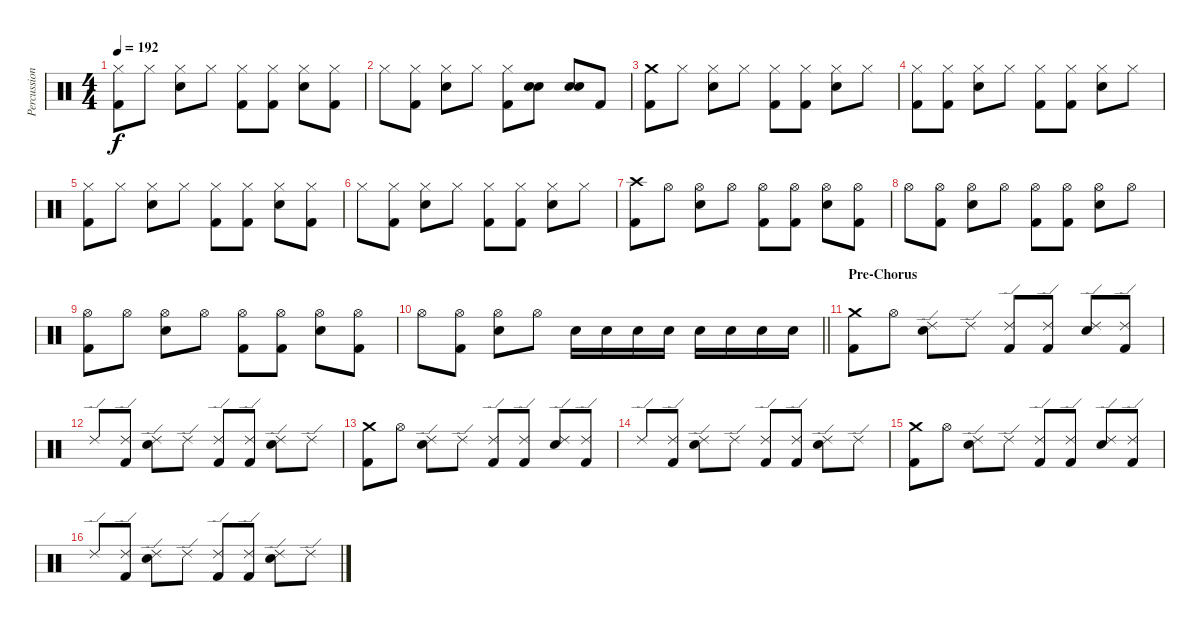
\track ("Percussion" "Percussion") {instrument percussion}
\staff {score}
\articulation defaults
\ts (4 4)
\tempo 192
\clef neutral
\ks c
("Hi-Hat (closed)" "Kick (hit) 2").8{dy f} "Hi-Hat (closed)".8 ("Hi-Hat (closed)" "Electric Snare (hit)").8 "Hi-Hat (closed)".8 ("Hi-Hat (closed)" "Kick (hit) 2").8 ("Hi-Hat (closed)" "Kick (hit) 2").8 ("Hi-Hat (closed)" "Electric Snare (hit)").8 ("Hi-Hat (closed)" "Kick (hit) 2").8 |
"Hi-Hat (closed)".8 ("Hi-Hat (closed)" "Kick (hit) 2").8 ("Hi-Hat (closed)" "Electric Snare (hit)").8 "Hi-Hat (closed)".8 ("Hi-Hat (closed)" "Kick (hit) 2").8 ("Electric Snare (hit)" "Electric Snare (hit)").8 ("Electric Snare (hit)" "Electric Snare (hit)").8 "Kick (hit) 2".8 |
("Crash medium (hit)" "Kick (hit) 2").8 "Hi-Hat (closed)".8 ("Hi-Hat (closed)" "Electric Snare (hit)").8 "Hi-Hat (closed)".8 ("Hi-Hat (closed)" "Kick (hit) 2").8 ("Hi-Hat (closed)" "Kick (hit) 2").8 ("Hi-Hat (closed)" "Electric Snare (hit)").8 "Hi-Hat (closed)".8 |
("Hi-Hat (closed)" "Kick (hit) 2").8 ("Hi-Hat (closed)" "Kick (hit) 2").8 ("Hi-Hat (closed)" "Electric Snare (hit)").8 "Hi-Hat (closed)".8 ("Hi-Hat (closed)" "Kick (hit) 2").8 ("Hi-Hat (closed)" "Kick (hit) 2").8 ("Hi-Hat (closed)" "Electric Snare (hit)").8 "Hi-Hat (closed)".8 |
("Hi-Hat (closed)" "Kick (hit) 2").8 "Hi-Hat (closed)".8 ("Hi-Hat (closed)" "Electric Snare (hit)").8 "Hi-Hat (closed)".8 ("Hi-Hat (closed)" "Kick (hit) 2").8 ("Hi-Hat (closed)" "Kick (hit) 2").8 ("Hi-Hat (closed)" "Electric Snare (hit)").8 ("Hi-Hat (closed)" "Kick (hit) 2").8 |
"Hi-Hat (closed)".8 ("Hi-Hat (closed)" "Kick (hit) 2").8 ("Hi-Hat (closed)" "Electric Snare (hit)").8 "Hi-Hat (closed)".8 ("Hi-Hat (closed)" "Kick (hit) 2").8 ("Hi-Hat (closed)" "Kick (hit) 2").8 ("Hi-Hat (closed)" "Electric Snare (hit)").8 "Hi-Hat (closed)".8 |
("Crash high (hit)" "Kick (hit) 2").8 "Hi-Hat (open)".8 ("Hi-Hat (open)" "Electric Snare (hit)").8 "Hi-Hat (open)".8 ("Hi-Hat (open)" "Kick (hit) 2").8 ("Hi-Hat (open)" "Kick (hit) 2").8 ("Hi-Hat (open)" "Electric Snare (hit)").8 ("Hi-Hat (open)" "Kick (hit) 2").8 |
"Hi-Hat (open)".8 ("Hi-Hat (open)" "Kick (hit) 2").8 ("Hi-Hat (open)" "Electric Snare (hit)").8 "Hi-Hat (open)".8 ("Hi-Hat (open)" "Kick (hit) 2").8 ("Hi-Hat (open)" "Kick (hit) 2").8 ("Hi-Hat (open)" "Electric Snare (hit)").8 "Hi-Hat (open)".8 |
("Hi-Hat (open)" "Kick (hit) 2").8 "Hi-Hat (open)".8 ("Hi-Hat (open)" "Electric Snare (hit)").8 "Hi-Hat (open)".8 ("Hi-Hat (open)" "Kick (hit) 2").8 ("Hi-Hat (open)" "Kick (hit) 2").8 ("Hi-Hat (open)" "Electric Snare (hit)").8 ("Hi-Hat (open)" "Kick (hit) 2").8 |
\barLineRight lightlight "Hi-Hat (open)".8
("Hi-Hat (open)" "Kick (hit) 2").8 ("Hi-Hat (open)" "Electric Snare (hit)").8 "Hi-Hat (open)".8 "Electric Snare (hit)".16 "Electric Snare (hit)".16 "Electric Snare (hit)".16 "Electric Snare (hit)".16 "Electric Snare (hit)".16 "Electric Snare (hit)".16 "Electric Snare (hit)".16 "Electric Snare (hit)".16 |
\section ("" "Pre-Chorus")
("Crash medium (hit)" "Kick (hit) 2").8 "Hi-Hat (open)".8 ("Ride (edge) 2" "Electric Snare (hit)").8 "Ride (edge) 2".8 ("Ride (edge) 2" "Kick (hit) 2").8 ("Ride (edge) 2" "Kick (hit) 2").8 ("Ride (edge) 2" "Electric Snare (hit)").8 ("Ride (edge) 2" "Kick (hit) 2").8 |
"Ride (edge) 2".8 ("Ride (edge) 2" "Kick (hit) 2").8 ("Ride (edge) 2" "Electric Snare (hit)").8 "Ride (edge) 2".8 ("Ride (edge) 2" "Kick (hit) 2").8 ("Ride (edge) 2" "Kick (hit) 2").8 ("Ride (edge) 2" "Electric Snare (hit)").8 "Ride (edge) 2".8 |
("Crash medium (hit)" "Kick (hit) 2").8 "Hi-Hat (open)".8 ("Ride (edge) 2" "Electric Snare (hit)").8 "Ride (edge) 2".8 ("Ride (edge) 2" "Kick (hit) 2").8 ("Ride (edge) 2" "Kick (hit) 2").8 ("Ride (edge) 2" "Electric Snare (hit)").8 ("Ride (edge) 2" "Kick (hit) 2").8 |
"Ride (edge) 2".8 ("Ride (edge) 2" "Kick (hit) 2").8 ("Ride (edge) 2" "Electric Snare (hit)").8 "Ride (edge) 2".8 ("Ride (edge) 2" "Kick (hit) 2").8 ("Ride (edge) 2" "Kick (hit) 2").8 ("Ride (edge) 2" "Electric Snare (hit)").8 "Ride (edge) 2".8 |
("Crash medium (hit)" "Kick (hit) 2").8 "Hi-Hat (open)".8 ("Ride (edge) 2" "Electric Snare (hit)").8 "Ride (edge) 2".8 ("Ride (edge) 2" "Kick (hit) 2").8 ("Ride (edge) 2" "Kick (hit) 2").8 ("Ride (edge) 2" "Electric Snare (hit)").8 ("Ride (edge) 2" "Kick (hit) 2").8 |
"Ride (edge) 2".8 ("Ride (edge) 2" "Kick (hit) 2").8 ("Ride (edge) 2" "Electric Snare (hit)").8 "Ride (edge) 2".8 ("Ride (edge) 2" "Kick (hit) 2").8 ("Ride (edge) 2" "Kick (hit) 2").8 ("Ride (edge) 2" "Electric Snare (hit)").8 "Ride (edge) 2".8
